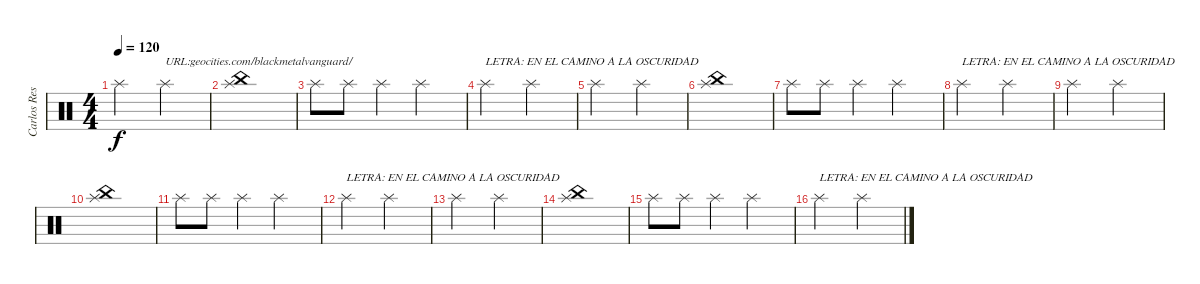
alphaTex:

\track ("Carlos Restrepo" "Carlos Res") {instrument percussion}
\staff {score}
\articulation defaults
\ts (4 4)
\tempo 120
\clef neutral
\ks c "Splash (hit)".2{dy f} "Splash (hit)".2{txt "URL:geocities.com/blackmetalvanguard/"}
|
("Splash (hit)" "China (hit)").1 |
"Splash (hit)".8 "Splash (hit)".8 "Splash (hit)".4 "Splash (hit)".2 |
"Splash (hit)".2{txt "LETRA: EN EL CAMINO A LA OSCURIDAD "} "Splash (hit)".2 |
"Splash (hit)".2 "Splash (hit)".2 |
("Splash (hit)" "China (hit)").1 |
"Splash (hit)".8 "Splash (hit)".8 "Splash (hit)".4 "Splash (hit)".2 |
"Splash (hit)".2{txt "LETRA: EN EL CAMINO A LA OSCURIDAD "} "Splash (hit)".2 |
"Splash (hit)".2 "Splash (hit)".2 |
("Splash (hit)" "China (hit)").1 |
"Splash (hit)".8 "Splash (hit)".8 "Splash (hit)".4 "Splash (hit)".2 |
"Splash (hit)".2{txt "LETRA: EN EL CAMINO A LA OSCURIDAD "} "Splash (hit)".2 |
"Splash (hit)".2 "Splash (hit)".2 |
("Splash (hit)" "China (hit)").1 |
"Splash (hit)".8 "Splash (hit)".8 "Splash (hit)".4 "Splash (hit)".2 |
"Splash (hit)".2{txt "LETRA: EN EL CAMINO A LA OSCURIDAD "} "Splash (hit)".2
